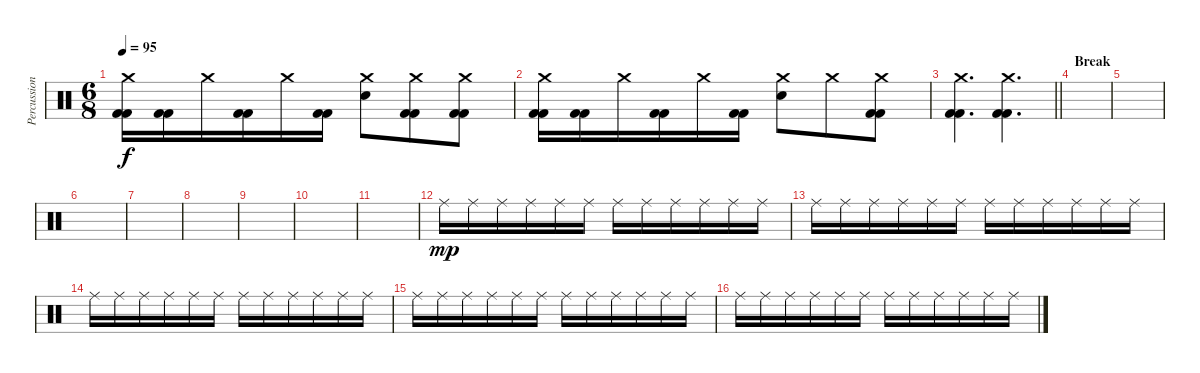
\track ("Percussion" "Percussion") {instrument percussion}
\staff {score}
\articulation defaults
\ts (6 8)
\tempo 95
\clef neutral
\ks c
("Crash medium (hit)" "Kick (hit) 2" "Kick (hit) 2").16{dy f} ("Kick (hit) 2" "Kick (hit) 2").16 "Crash medium (hit)".16 ("Kick (hit) 2" "Kick (hit) 2").16 "Crash medium (hit)".16 ("Kick (hit) 2" "Kick (hit) 2").16 ("Crash medium (hit)" "Electric Snare (hit)").8 ("Crash medium (hit)" "Kick (hit) 2" "Kick (hit) 2").8 ("Crash medium (hit)" "Kick (hit) 2" "Kick (hit) 2").8 |
("Crash medium (hit)" "Kick (hit) 2" "Kick (hit) 2").16 ("Kick (hit) 2" "Kick (hit) 2").16 "Crash medium (hit)".16 ("Kick (hit) 2" "Kick (hit) 2").16 "Crash medium (hit)".16 ("Kick (hit) 2" "Kick (hit) 2").16 ("Crash medium (hit)" "Electric Snare (hit)").8 "Crash medium (hit)".8 ("Crash medium (hit)" "Kick (hit) 2" "Kick (hit) 2").8 |
\barLineRight lightlight
("Crash medium (hit)" "Kick (hit) 2" "Kick (hit) 2").4{d} ("Crash medium (hit)" "Kick (hit) 2" "Kick (hit) 2").4{d} |
\section ("" "Break")
|
|
|
|
|
|
|
|
"Ride (middle)".16{dy mp} "Ride (middle)".16 "Ride (middle)".16 "Ride (middle)".16 "Ride (middle)".16 "Ride (middle)".16 "Ride (middle)".16 "Ride (middle)".16 "Ride (middle)".16 "Ride (middle)".16 "Ride (middle)".16 "Ride (middle)".16 |
"Ride (middle)".16 "Ride (middle)".16 "Ride (middle)".16 "Ride (middle)".16 "Ride (middle)".16 "Ride (middle)".16 "Ride (middle)".16 "Ride (middle)".16 "Ride (middle)".16 "Ride (middle)".16 "Ride (middle)".16 "Ride (middle)".16 |
"Ride (middle)".16 "Ride (middle)".16 "Ride (middle)".16 "Ride (middle)".16 "Ride (middle)".16 "Ride (middle)".16 "Ride (middle)".16 "Ride (middle)".16 "Ride (middle)".16 "Ride (middle)".16 "Ride (middle)".16 "Ride (middle)".16 |
"Ride (middle)".16 "Ride (middle)".16 "Ride (middle)".16 "Ride (middle)".16 "Ride (middle)".16 "Ride (middle)".16 "Ride (middle)".16 "Ride (middle)".16 "Ride (middle)".16 "Ride (middle)".16 "Ride (middle)".16 "Ride (middle)".16 |
"Ride (middle)".16 "Ride (middle)".16 "Ride (middle)".16 "Ride (middle)".16 "Ride (middle)".16 "Ride (middle)".16 "Ride (middle)".16 "Ride (middle)".16 "Ride (middle)".16 "Ride (middle)".16 "Ride (middle)".16 "Ride (middle)".16
